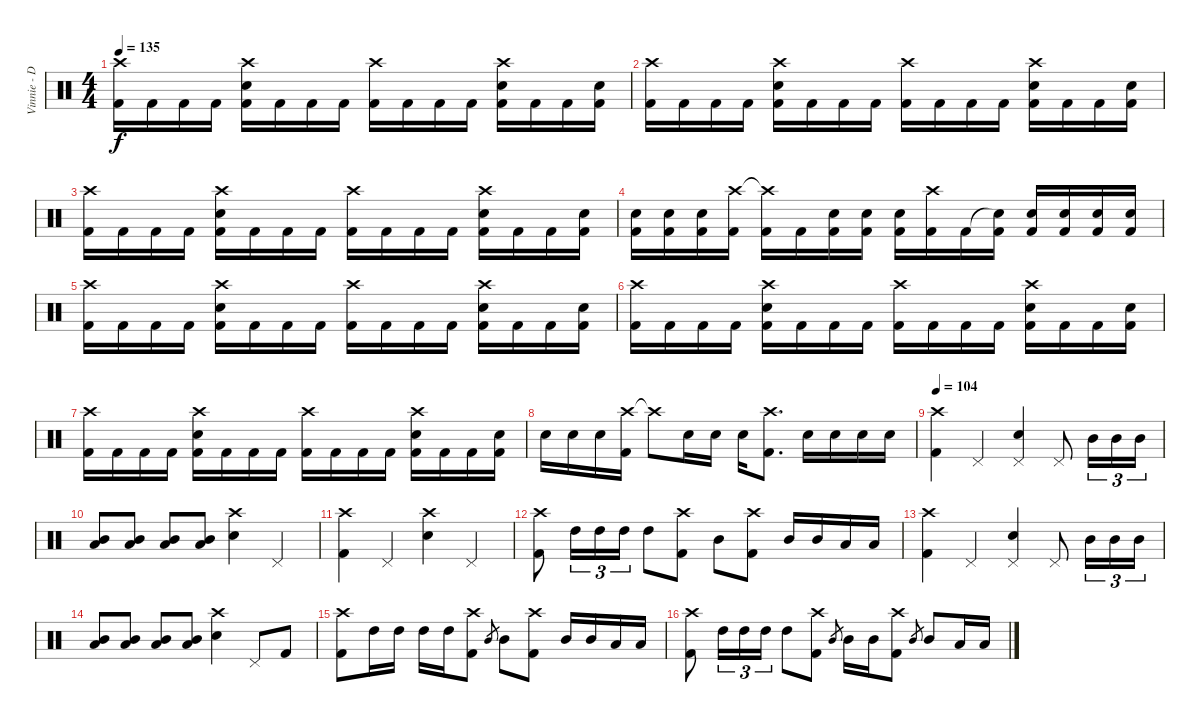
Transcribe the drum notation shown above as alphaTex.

\track ("Vinnie - Drums" "Vinnie - D") {instrument percussion}
\staff {score}
\articulation defaults
\ts (4 4)
\tempo 135
\clef neutral
\ks c
("Crash high (hit)" "Kick (hit) 2").16{dy f} "Kick (hit) 2".16 "Kick (hit) 2".16 "Kick (hit) 2".16 ("Crash high (hit)" "Electric Snare (hit)" "Kick (hit) 2").16 "Kick (hit) 2".16 "Kick (hit) 2".16 "Kick (hit) 2".16 ("Crash high (hit)" "Kick (hit) 2").16 "Kick (hit) 2".16 "Kick (hit) 2".16 "Kick (hit) 2".16 ("Crash high (hit)" "Electric Snare (hit)" "Kick (hit) 2").16 "Kick (hit) 2".16 "Kick (hit) 2".16 ("Electric Snare (hit)" "Kick (hit) 2").16 |
("Crash high (hit)" "Kick (hit) 2").16 "Kick (hit) 2".16 "Kick (hit) 2".16 "Kick (hit) 2".16 ("Crash high (hit)" "Electric Snare (hit)" "Kick (hit) 2").16 "Kick (hit) 2".16 "Kick (hit) 2".16 "Kick (hit) 2".16 ("Crash high (hit)" "Kick (hit) 2").16 "Kick (hit) 2".16 "Kick (hit) 2".16 "Kick (hit) 2".16 ("Crash high (hit)" "Electric Snare (hit)" "Kick (hit) 2").16 "Kick (hit) 2".16 "Kick (hit) 2".16 ("Electric Snare (hit)" "Kick (hit) 2").16 |
("Crash high (hit)" "Kick (hit) 2").16 "Kick (hit) 2".16 "Kick (hit) 2".16 "Kick (hit) 2".16 ("Crash high (hit)" "Electric Snare (hit)" "Kick (hit) 2").16 "Kick (hit) 2".16 "Kick (hit) 2".16 "Kick (hit) 2".16 ("Crash high (hit)" "Kick (hit) 2").16 "Kick (hit) 2".16 "Kick (hit) 2".16 "Kick (hit) 2".16 ("Crash high (hit)" "Electric Snare (hit)" "Kick (hit) 2").16 "Kick (hit) 2".16 "Kick (hit) 2".16 ("Electric Snare (hit)" "Kick (hit) 2").16 |
("Electric Snare (hit)" "Kick (hit) 2").16 ("Electric Snare (hit)" "Kick (hit) 2").16 ("Electric Snare (hit)" "Kick (hit) 2").16 ("Crash high (hit)" "Kick (hit) 2").16 ("Crash high (hit)"{t} "Kick (hit) 2").16 "Kick (hit) 2".16 ("Electric Snare (hit)" "Kick (hit) 2").16 ("Electric Snare (hit)" "Kick (hit) 2").16 ("Electric Snare (hit)" "Kick (hit) 2").16 ("Crash high (hit)" "Kick (hit) 2").16 "Kick (hit) 2".16 ("Snare (hit)"{t} "Kick (hit) 2").16 ("Electric Snare (hit)" "Kick (hit) 2").16 ("Electric Snare (hit)" "Kick (hit) 2").16 ("Electric Snare (hit)" "Kick (hit) 2").16 ("Electric Snare (hit)" "Kick (hit) 2").16 |
("Crash high (hit)" "Kick (hit) 2").16 "Kick (hit) 2".16 "Kick (hit) 2".16 "Kick (hit) 2".16 ("Crash high (hit)" "Electric Snare (hit)" "Kick (hit) 2").16 "Kick (hit) 2".16 "Kick (hit) 2".16 "Kick (hit) 2".16 ("Crash high (hit)" "Kick (hit) 2").16 "Kick (hit) 2".16 "Kick (hit) 2".16 "Kick (hit) 2".16 ("Crash high (hit)" "Electric Snare (hit)" "Kick (hit) 2").16 "Kick (hit) 2".16 "Kick (hit) 2".16 ("Electric Snare (hit)" "Kick (hit) 2").16 |
("Crash high (hit)" "Kick (hit) 2").16 "Kick (hit) 2".16 "Kick (hit) 2".16 "Kick (hit) 2".16 ("Crash high (hit)" "Electric Snare (hit)" "Kick (hit) 2").16 "Kick (hit) 2".16 "Kick (hit) 2".16 "Kick (hit) 2".16 ("Crash high (hit)" "Kick (hit) 2").16 "Kick (hit) 2".16 "Kick (hit) 2".16 "Kick (hit) 2".16 ("Crash high (hit)" "Electric Snare (hit)" "Kick (hit) 2").16 "Kick (hit) 2".16 "Kick (hit) 2".16 ("Electric Snare (hit)" "Kick (hit) 2").16 |
("Crash high (hit)" "Kick (hit) 2").16 "Kick (hit) 2".16 "Kick (hit) 2".16 "Kick (hit) 2".16 ("Crash high (hit)" "Electric Snare (hit)" "Kick (hit) 2").16 "Kick (hit) 2".16 "Kick (hit) 2".16 "Kick (hit) 2".16 ("Crash high (hit)" "Kick (hit) 2").16 "Kick (hit) 2".16 "Kick (hit) 2".16 "Kick (hit) 2".16 ("Crash high (hit)" "Electric Snare (hit)" "Kick (hit) 2").16 "Kick (hit) 2".16 "Kick (hit) 2".16 ("Electric Snare (hit)" "Kick (hit) 2").16 |
"Electric Snare (hit)".16 "Electric Snare (hit)".16 "Electric Snare (hit)".16 ("Crash high (hit)" "Kick (hit) 2").16 "Crash high (hit)"{t}.8 "Electric Snare (hit)".16 "Electric Snare (hit)".16 "Electric Snare (hit)".16 ("Crash high (hit)" "Kick (hit) 2").8{d} "Electric Snare (hit)".16 "Electric Snare (hit)".16 "Electric Snare (hit)".16 "Electric Snare (hit)".16 |
\tempo 104
("Crash high (hit)" "Kick (hit) 2").4 "Pedal Hi-Hat (hit)".4 ("Pedal Hi-Hat (hit)" "Electric Snare (hit)").4 "Pedal Hi-Hat (hit)".8 "Mid Tom (hit)".16{tu (3 2)} "Mid Tom (hit)".16{tu (3 2)} "Mid Tom (hit)".16{tu (3 2)} |
("Mid Tom (hit)" "Low Tom (hit)").8 ("Mid Tom (hit)" "Low Tom (hit)").8 ("Mid Tom (hit)" "Low Tom (hit)").8 ("Mid Tom (hit)" "Low Tom (hit)").8 ("Crash high (hit)" "Electric Snare (hit)").4 "Pedal Hi-Hat (hit)".4 |
("Crash high (hit)" "Kick (hit) 2").4 "Pedal Hi-Hat (hit)".4 ("Crash high (hit)" "Electric Snare (hit)").4 "Pedal Hi-Hat (hit)".4 |
("Crash high (hit)" "Kick (hit) 2").8 "High Tom (hit)".16{tu (3 2)} "High Tom (hit)".16{tu (3 2)} "High Tom (hit)".16{tu (3 2)} "High Tom (hit)".8 ("Crash high (hit)" "Kick (hit) 2").8 "Mid Tom (hit)".8 ("Crash high (hit)" "Kick (hit) 2").8 "Mid Tom (hit)".16 "Mid Tom (hit)".16 "Low Tom (hit)".16 "Low Tom (hit)".16 |
("Crash high (hit)" "Kick (hit) 2").4 "Pedal Hi-Hat (hit)".4 ("Pedal Hi-Hat (hit)" "Electric Snare (hit)").4 "Pedal Hi-Hat (hit)".8 "Mid Tom (hit)".16{tu (3 2)} "Mid Tom (hit)".16{tu (3 2)} "Mid Tom (hit)".16{tu (3 2)} |
("Mid Tom (hit)" "Low Tom (hit)").8 ("Mid Tom (hit)" "Low Tom (hit)").8 ("Mid Tom (hit)" "Low Tom (hit)").8 ("Mid Tom (hit)" "Low Tom (hit)").8 ("Crash high (hit)" "Electric Snare (hit)").4 "Pedal Hi-Hat (hit)".8 "Kick (hit) 2".8 |
("Crash high (hit)" "Kick (hit) 2").8 "High Tom (hit)".16 "High Tom (hit)".16 "High Tom (hit)".16 "High Tom (hit)".16 ("Crash high (hit)" "Kick (hit) 2").8 "Mid Tom (hit)".8{gr} "Mid Tom (hit)".8 ("Crash high (hit)" "Kick (hit) 2").8 "Mid Tom (hit)".16 "Mid Tom (hit)".16 "Low Tom (hit)".16 "Low Tom (hit)".16 |
("Crash high (hit)" "Kick (hit) 2").8 "High Tom (hit)".16{tu (3 2)} "High Tom (hit)".16{tu (3 2)} "High Tom (hit)".16{tu (3 2)} "High Tom (hit)".8 ("Crash high (hit)" "Kick (hit) 2").8 "Mid Tom (hit)".8{gr} "Mid Tom (hit)".16 "Mid Tom (hit)".16 ("Crash high (hit)" "Kick (hit) 2").8 "Mid Tom (hit)".8{gr} "Mid Tom (hit)".8 "Low Tom (hit)".16 "Low Tom (hit)".16
